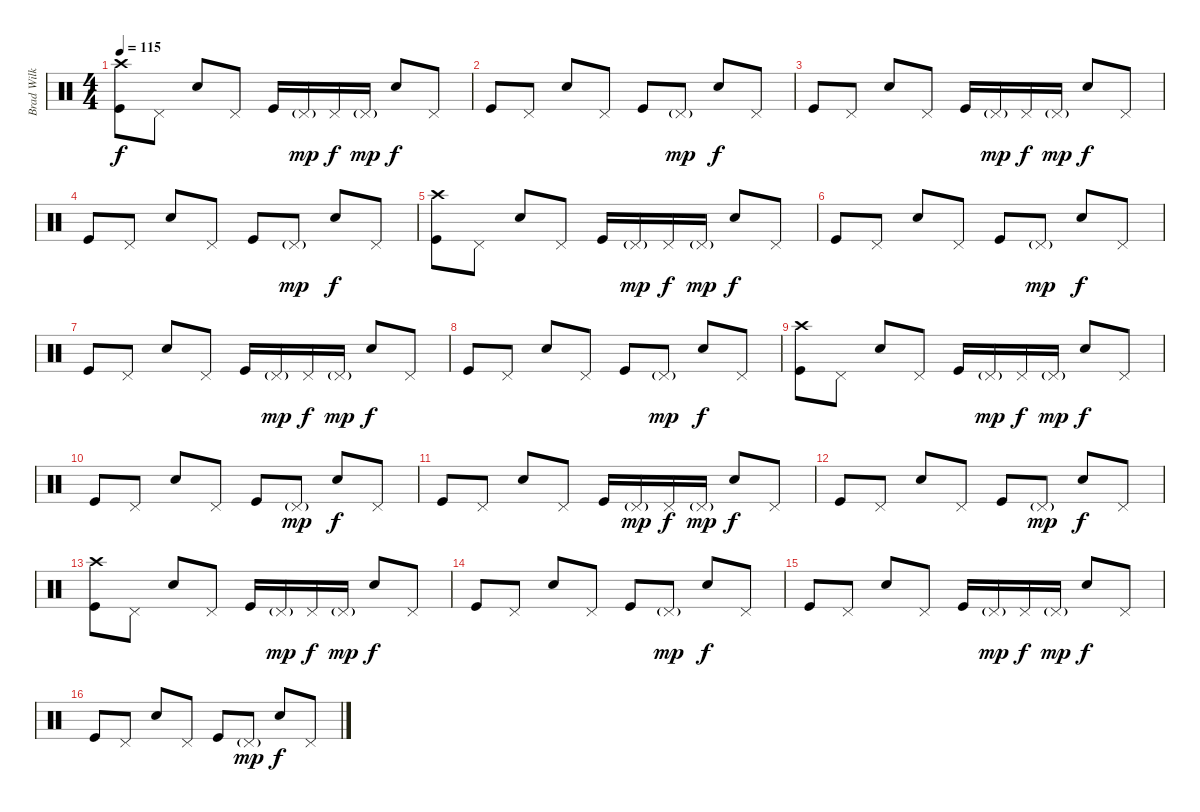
\track ("Brad Wilk - Drums" "Brad Wilk ") {instrument percussion}
\staff {score}
\articulation defaults
\ts (4 4)
\tempo 115
\clef neutral
\ks c
("Crash high (hit)" "Kick (hit)").8{dy f} "Pedal Hi-Hat (hit)".8 "Snare (hit) 2".8 "Pedal Hi-Hat (hit)".8 "Kick (hit)".16 "Pedal Hi-Hat (hit)"{g}.16{dy mp} "Pedal Hi-Hat (hit)".16{dy f} "Pedal Hi-Hat (hit)"{g}.16{dy mp} "Snare (hit) 2".8{dy f} "Pedal Hi-Hat (hit)".8 |
"Kick (hit)".8 "Pedal Hi-Hat (hit)".8 "Snare (hit) 2".8 "Pedal Hi-Hat (hit)".8 "Kick (hit)".8 "Pedal Hi-Hat (hit)"{g}.8{dy mp} "Snare (hit) 2".8{dy f} "Pedal Hi-Hat (hit)".8 |
"Kick (hit)".8 "Pedal Hi-Hat (hit)".8 "Snare (hit) 2".8 "Pedal Hi-Hat (hit)".8 "Kick (hit)".16 "Pedal Hi-Hat (hit)"{g}.16{dy mp} "Pedal Hi-Hat (hit)".16{dy f} "Pedal Hi-Hat (hit)"{g}.16{dy mp} "Snare (hit) 2".8{dy f} "Pedal Hi-Hat (hit)".8 |
"Kick (hit)".8 "Pedal Hi-Hat (hit)".8 "Snare (hit) 2".8 "Pedal Hi-Hat (hit)".8 "Kick (hit)".8 "Pedal Hi-Hat (hit)"{g}.8{dy mp} "Snare (hit) 2".8{dy f} "Pedal Hi-Hat (hit)".8 |
("Crash high (hit)" "Kick (hit)").8 "Pedal Hi-Hat (hit)".8 "Snare (hit) 2".8 "Pedal Hi-Hat (hit)".8 "Kick (hit)".16 "Pedal Hi-Hat (hit)"{g}.16{dy mp} "Pedal Hi-Hat (hit)".16{dy f} "Pedal Hi-Hat (hit)"{g}.16{dy mp} "Snare (hit) 2".8{dy f} "Pedal Hi-Hat (hit)".8 |
"Kick (hit)".8 "Pedal Hi-Hat (hit)".8 "Snare (hit) 2".8 "Pedal Hi-Hat (hit)".8 "Kick (hit)".8 "Pedal Hi-Hat (hit)"{g}.8{dy mp} "Snare (hit) 2".8{dy f} "Pedal Hi-Hat (hit)".8 |
"Kick (hit)".8 "Pedal Hi-Hat (hit)".8 "Snare (hit) 2".8 "Pedal Hi-Hat (hit)".8 "Kick (hit)".16 "Pedal Hi-Hat (hit)"{g}.16{dy mp} "Pedal Hi-Hat (hit)".16{dy f} "Pedal Hi-Hat (hit)"{g}.16{dy mp} "Snare (hit) 2".8{dy f} "Pedal Hi-Hat (hit)".8 |
"Kick (hit)".8 "Pedal Hi-Hat (hit)".8 "Snare (hit) 2".8 "Pedal Hi-Hat (hit)".8 "Kick (hit)".8 "Pedal Hi-Hat (hit)"{g}.8{dy mp} "Snare (hit) 2".8{dy f} "Pedal Hi-Hat (hit)".8 |
("Crash high (hit)" "Kick (hit)").8 "Pedal Hi-Hat (hit)".8 "Snare (hit) 2".8 "Pedal Hi-Hat (hit)".8 "Kick (hit)".16 "Pedal Hi-Hat (hit)"{g}.16{dy mp} "Pedal Hi-Hat (hit)".16{dy f} "Pedal Hi-Hat (hit)"{g}.16{dy mp} "Snare (hit) 2".8{dy f} "Pedal Hi-Hat (hit)".8 |
"Kick (hit)".8 "Pedal Hi-Hat (hit)".8 "Snare (hit) 2".8 "Pedal Hi-Hat (hit)".8 "Kick (hit)".8 "Pedal Hi-Hat (hit)"{g}.8{dy mp} "Snare (hit) 2".8{dy f} "Pedal Hi-Hat (hit)".8 |
"Kick (hit)".8 "Pedal Hi-Hat (hit)".8 "Snare (hit) 2".8 "Pedal Hi-Hat (hit)".8 "Kick (hit)".16 "Pedal Hi-Hat (hit)"{g}.16{dy mp} "Pedal Hi-Hat (hit)".16{dy f} "Pedal Hi-Hat (hit)"{g}.16{dy mp} "Snare (hit) 2".8{dy f} "Pedal Hi-Hat (hit)".8 |
"Kick (hit)".8 "Pedal Hi-Hat (hit)".8 "Snare (hit) 2".8 "Pedal Hi-Hat (hit)".8 "Kick (hit)".8 "Pedal Hi-Hat (hit)"{g}.8{dy mp} "Snare (hit) 2".8{dy f} "Pedal Hi-Hat (hit)".8 |
("Crash high (hit)" "Kick (hit)").8 "Pedal Hi-Hat (hit)".8 "Snare (hit) 2".8 "Pedal Hi-Hat (hit)".8 "Kick (hit)".16 "Pedal Hi-Hat (hit)"{g}.16{dy mp} "Pedal Hi-Hat (hit)".16{dy f} "Pedal Hi-Hat (hit)"{g}.16{dy mp} "Snare (hit) 2".8{dy f} "Pedal Hi-Hat (hit)".8 |
"Kick (hit)".8 "Pedal Hi-Hat (hit)".8 "Snare (hit) 2".8 "Pedal Hi-Hat (hit)".8 "Kick (hit)".8 "Pedal Hi-Hat (hit)"{g}.8{dy mp} "Snare (hit) 2".8{dy f} "Pedal Hi-Hat (hit)".8 |
"Kick (hit)".8 "Pedal Hi-Hat (hit)".8 "Snare (hit) 2".8 "Pedal Hi-Hat (hit)".8 "Kick (hit)".16 "Pedal Hi-Hat (hit)"{g}.16{dy mp} "Pedal Hi-Hat (hit)".16{dy f} "Pedal Hi-Hat (hit)"{g}.16{dy mp} "Snare (hit) 2".8{dy f} "Pedal Hi-Hat (hit)".8 |
"Kick (hit)".8 "Pedal Hi-Hat (hit)".8 "Snare (hit) 2".8 "Pedal Hi-Hat (hit)".8 "Kick (hit)".8 "Pedal Hi-Hat (hit)"{g}.8{dy mp} "Snare (hit) 2".8{dy f} "Pedal Hi-Hat (hit)".8
